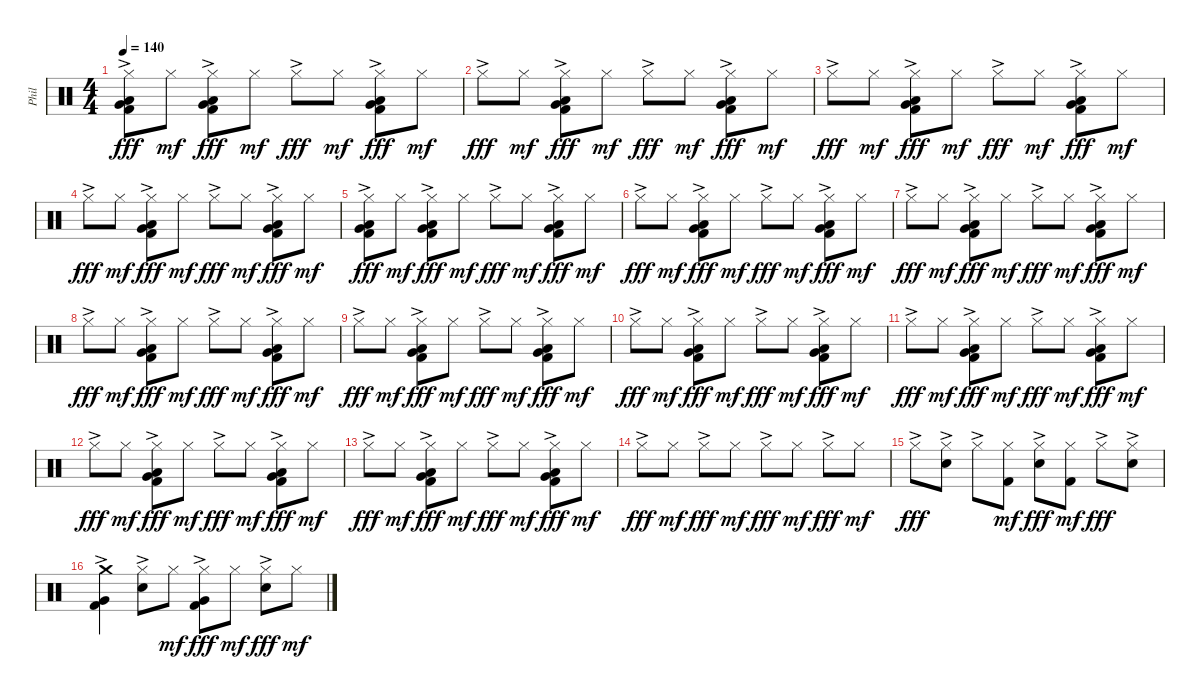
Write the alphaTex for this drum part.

\track ("Phil" "Phil") {instrument percussion}
\staff {score}
\articulation defaults
\ts (4 4)
\tempo 140
\clef neutral
\ks c
("Hi-Hat (closed)"{ac} "Very Low Tom (hit)"{ac} "Low Floor Tom (hit)"{ac} "Kick (hit) 2"{ac}).8{dy fff} "Hi-Hat (closed)".8{dy mf} ("Hi-Hat (closed)"{ac} "Very Low Tom (hit)"{ac} "Low Floor Tom (hit)"{ac} "Kick (hit) 2"{ac}).8{dy fff} "Hi-Hat (closed)".8{dy mf} "Hi-Hat (closed)"{ac}.8{dy fff} "Hi-Hat (closed)".8{dy mf} ("Hi-Hat (closed)"{ac} "Very Low Tom (hit)" "Low Floor Tom (hit)" "Kick (hit) 2").8{dy fff} "Hi-Hat (closed)".8{dy mf} |
"Hi-Hat (closed)"{ac}.8{dy fff} "Hi-Hat (closed)".8{dy mf} ("Hi-Hat (closed)"{ac} "Very Low Tom (hit)" "Low Floor Tom (hit)" "Kick (hit) 2").8{dy fff} "Hi-Hat (closed)".8{dy mf} "Hi-Hat (closed)"{ac}.8{dy fff} "Hi-Hat (closed)".8{dy mf} ("Hi-Hat (closed)"{ac} "Very Low Tom (hit)" "Low Floor Tom (hit)" "Kick (hit) 2").8{dy fff} "Hi-Hat (closed)".8{dy mf} |
"Hi-Hat (closed)"{ac}.8{dy fff} "Hi-Hat (closed)".8{dy mf} ("Hi-Hat (closed)"{ac} "Very Low Tom (hit)" "Low Floor Tom (hit)" "Kick (hit) 2").8{dy fff} "Hi-Hat (closed)".8{dy mf} "Hi-Hat (closed)"{ac}.8{dy fff} "Hi-Hat (closed)".8{dy mf} ("Hi-Hat (closed)"{ac} "Very Low Tom (hit)" "Low Floor Tom (hit)" "Kick (hit) 2").8{dy fff} "Hi-Hat (closed)".8{dy mf} |
"Hi-Hat (closed)"{ac}.8{dy fff} "Hi-Hat (closed)".8{dy mf} ("Hi-Hat (closed)"{ac} "Very Low Tom (hit)" "Low Floor Tom (hit)" "Kick (hit) 2").8{dy fff} "Hi-Hat (closed)".8{dy mf} "Hi-Hat (closed)"{ac}.8{dy fff} "Hi-Hat (closed)".8{dy mf} ("Hi-Hat (closed)"{ac} "Very Low Tom (hit)" "Low Floor Tom (hit)" "Kick (hit) 2").8{dy fff} "Hi-Hat (closed)".8{dy mf} |
("Hi-Hat (closed)"{ac} "Very Low Tom (hit)"{ac} "Low Floor Tom (hit)"{ac} "Kick (hit) 2"{ac}).8{dy fff} "Hi-Hat (closed)".8{dy mf} ("Hi-Hat (closed)"{ac} "Very Low Tom (hit)"{ac} "Low Floor Tom (hit)"{ac} "Kick (hit) 2"{ac}).8{dy fff} "Hi-Hat (closed)".8{dy mf} "Hi-Hat (closed)"{ac}.8{dy fff} "Hi-Hat (closed)".8{dy mf} ("Hi-Hat (closed)"{ac} "Very Low Tom (hit)" "Low Floor Tom (hit)" "Kick (hit) 2").8{dy fff} "Hi-Hat (closed)".8{dy mf} |
"Hi-Hat (closed)"{ac}.8{dy fff} "Hi-Hat (closed)".8{dy mf} ("Hi-Hat (closed)"{ac} "Very Low Tom (hit)" "Low Floor Tom (hit)" "Kick (hit) 2").8{dy fff} "Hi-Hat (closed)".8{dy mf} "Hi-Hat (closed)"{ac}.8{dy fff} "Hi-Hat (closed)".8{dy mf} ("Hi-Hat (closed)"{ac} "Very Low Tom (hit)" "Low Floor Tom (hit)" "Kick (hit) 2").8{dy fff} "Hi-Hat (closed)".8{dy mf} |
"Hi-Hat (closed)"{ac}.8{dy fff} "Hi-Hat (closed)".8{dy mf} ("Hi-Hat (closed)"{ac} "Very Low Tom (hit)" "Low Floor Tom (hit)" "Kick (hit) 2").8{dy fff} "Hi-Hat (closed)".8{dy mf} "Hi-Hat (closed)"{ac}.8{dy fff} "Hi-Hat (closed)".8{dy mf} ("Hi-Hat (closed)"{ac} "Very Low Tom (hit)" "Low Floor Tom (hit)" "Kick (hit) 2").8{dy fff} "Hi-Hat (closed)".8{dy mf} |
"Hi-Hat (closed)"{ac}.8{dy fff} "Hi-Hat (closed)".8{dy mf} ("Hi-Hat (closed)"{ac} "Very Low Tom (hit)" "Low Floor Tom (hit)" "Kick (hit) 2").8{dy fff} "Hi-Hat (closed)".8{dy mf} "Hi-Hat (closed)"{ac}.8{dy fff} "Hi-Hat (closed)".8{dy mf} ("Hi-Hat (closed)"{ac} "Very Low Tom (hit)" "Low Floor Tom (hit)" "Kick (hit) 2").8{dy fff} "Hi-Hat (closed)".8{dy mf} |
"Hi-Hat (closed)"{ac}.8{dy fff} "Hi-Hat (closed)".8{dy mf} ("Hi-Hat (closed)"{ac} "Very Low Tom (hit)" "Low Floor Tom (hit)" "Kick (hit) 2").8{dy fff} "Hi-Hat (closed)".8{dy mf} "Hi-Hat (closed)"{ac}.8{dy fff} "Hi-Hat (closed)".8{dy mf} ("Hi-Hat (closed)"{ac} "Very Low Tom (hit)" "Low Floor Tom (hit)" "Kick (hit) 2").8{dy fff} "Hi-Hat (closed)".8{dy mf} |
"Hi-Hat (closed)"{ac}.8{dy fff} "Hi-Hat (closed)".8{dy mf} ("Hi-Hat (closed)"{ac} "Very Low Tom (hit)" "Low Floor Tom (hit)" "Kick (hit) 2").8{dy fff} "Hi-Hat (closed)".8{dy mf} "Hi-Hat (closed)"{ac}.8{dy fff} "Hi-Hat (closed)".8{dy mf} ("Hi-Hat (closed)"{ac} "Very Low Tom (hit)" "Low Floor Tom (hit)" "Kick (hit) 2").8{dy fff} "Hi-Hat (closed)".8{dy mf} |
"Hi-Hat (closed)"{ac}.8{dy fff} "Hi-Hat (closed)".8{dy mf} ("Hi-Hat (closed)"{ac} "Very Low Tom (hit)" "Low Floor Tom (hit)" "Kick (hit) 2").8{dy fff} "Hi-Hat (closed)".8{dy mf} "Hi-Hat (closed)"{ac}.8{dy fff} "Hi-Hat (closed)".8{dy mf} ("Hi-Hat (closed)"{ac} "Very Low Tom (hit)" "Low Floor Tom (hit)" "Kick (hit) 2").8{dy fff} "Hi-Hat (closed)".8{dy mf} |
"Hi-Hat (closed)"{ac}.8{dy fff} "Hi-Hat (closed)".8{dy mf} ("Hi-Hat (closed)"{ac} "Very Low Tom (hit)" "Low Floor Tom (hit)" "Kick (hit) 2").8{dy fff} "Hi-Hat (closed)".8{dy mf} "Hi-Hat (closed)"{ac}.8{dy fff} "Hi-Hat (closed)".8{dy mf} ("Hi-Hat (closed)"{ac} "Very Low Tom (hit)" "Low Floor Tom (hit)" "Kick (hit) 2").8{dy fff} "Hi-Hat (closed)".8{dy mf} |
"Hi-Hat (closed)"{ac}.8{dy fff} "Hi-Hat (closed)".8{dy mf} ("Hi-Hat (closed)"{ac} "Very Low Tom (hit)" "Low Floor Tom (hit)" "Kick (hit) 2").8{dy fff} "Hi-Hat (closed)".8{dy mf} "Hi-Hat (closed)"{ac}.8{dy fff} "Hi-Hat (closed)".8{dy mf} ("Hi-Hat (closed)"{ac} "Very Low Tom (hit)" "Low Floor Tom (hit)" "Kick (hit) 2").8{dy fff} "Hi-Hat (closed)".8{dy mf} |
"Hi-Hat (closed)"{ac}.8{dy fff} "Hi-Hat (closed)".8{dy mf} "Hi-Hat (closed)"{ac}.8{dy fff} "Hi-Hat (closed)".8{dy mf} "Hi-Hat (closed)"{ac}.8{dy fff} "Hi-Hat (closed)".8{dy mf} "Hi-Hat (closed)"{ac}.8{dy fff} "Hi-Hat (closed)".8{dy mf} |
"Hi-Hat (closed)"{ac}.8{dy fff} ("Hi-Hat (closed)" "Snare (hit) 2"{ac}).8 "Hi-Hat (closed)"{ac}.8 ("Hi-Hat (closed)" "Kick (hit) 2").8{dy mf} ("Hi-Hat (closed)"{ac} "Snare (hit) 2"{ac}).8{dy fff} ("Hi-Hat (closed)" "Kick (hit) 2").8{dy mf} "Hi-Hat (closed)"{ac}.8{dy fff} ("Hi-Hat (closed)" "Snare (hit) 2"{ac}).8 |
("Crash medium (hit)"{ac} "Very Low Tom (hit)"{ac} "Kick (hit) 2"{ac}).4 ("Hi-Hat (closed)"{ac} "Snare (hit) 2").8 "Hi-Hat (closed)".8{dy mf} ("Hi-Hat (closed)"{ac} "Very Low Tom (hit)"{ac} "Kick (hit) 2"{ac}).8{dy fff} "Hi-Hat (closed)".8{dy mf} ("Hi-Hat (closed)"{ac} "Snare (hit) 2").8{dy fff} "Hi-Hat (closed)".8{dy mf}
